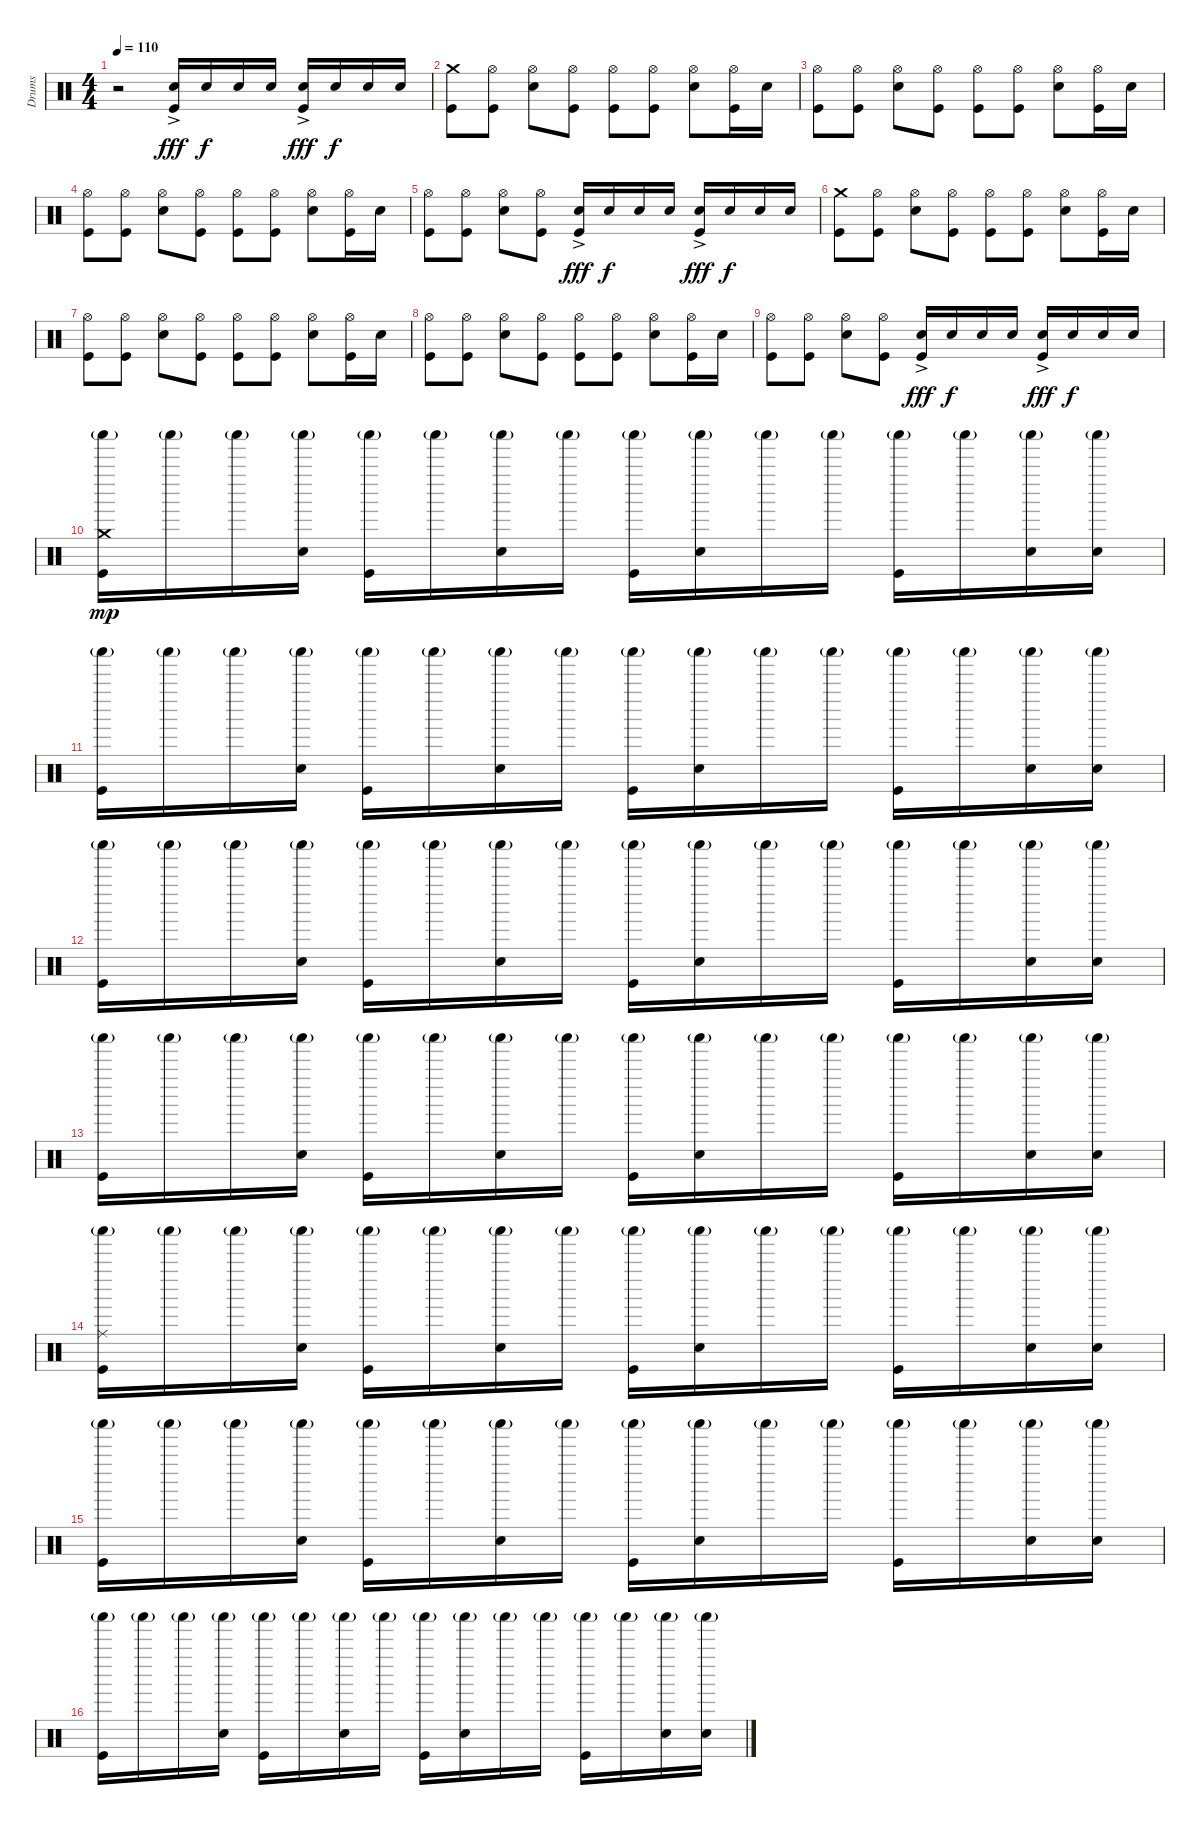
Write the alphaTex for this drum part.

\track ("Drums" "Drums") {instrument percussion}
\staff {score}
\articulation defaults
\ts (4 4)
\tempo 110
\clef neutral
\ks c
r.2{dy fff} ("Snare (hit) 2"{ac} "Kick (hit)").16 "Snare (hit) 2".16{dy f} "Snare (hit) 2".16 "Snare (hit) 2".16 ("Snare (hit) 2"{ac} "Kick (hit)").16{dy fff} "Snare (hit) 2".16{dy f} "Snare (hit) 2".16 "Snare (hit) 2".16 |
("Crash medium (hit)" "Kick (hit)").8 ("Hi-Hat (open)" "Kick (hit)").8 ("Hi-Hat (open)" "Snare (hit) 2").8 ("Hi-Hat (open)" "Kick (hit)").8 ("Hi-Hat (open)" "Kick (hit)").8 ("Hi-Hat (open)" "Kick (hit)").8 ("Hi-Hat (open)" "Snare (hit) 2").8 ("Hi-Hat (open)" "Kick (hit)").16 "Snare (hit) 2".16 |
("Hi-Hat (open)" "Kick (hit)").8 ("Hi-Hat (open)" "Kick (hit)").8 ("Hi-Hat (open)" "Snare (hit) 2").8 ("Hi-Hat (open)" "Kick (hit)").8 ("Hi-Hat (open)" "Kick (hit)").8 ("Hi-Hat (open)" "Kick (hit)").8 ("Hi-Hat (open)" "Snare (hit) 2").8 ("Hi-Hat (open)" "Kick (hit)").16 "Snare (hit) 2".16 |
("Hi-Hat (open)" "Kick (hit)").8 ("Hi-Hat (open)" "Kick (hit)").8 ("Hi-Hat (open)" "Snare (hit) 2").8 ("Hi-Hat (open)" "Kick (hit)").8 ("Hi-Hat (open)" "Kick (hit)").8 ("Hi-Hat (open)" "Kick (hit)").8 ("Hi-Hat (open)" "Snare (hit) 2").8 ("Hi-Hat (open)" "Kick (hit)").16 "Snare (hit) 2".16 |
("Hi-Hat (open)" "Kick (hit)").8 ("Hi-Hat (open)" "Kick (hit)").8 ("Hi-Hat (open)" "Snare (hit) 2").8 ("Hi-Hat (open)" "Kick (hit)").8 ("Snare (hit) 2"{ac} "Kick (hit)").16{dy fff} "Snare (hit) 2".16{dy f} "Snare (hit) 2".16 "Snare (hit) 2".16 ("Snare (hit) 2"{ac} "Kick (hit)").16{dy fff} "Snare (hit) 2".16{dy f} "Snare (hit) 2".16 "Snare (hit) 2".16 |
("Crash medium (hit)" "Kick (hit)").8 ("Hi-Hat (open)" "Kick (hit)").8 ("Hi-Hat (open)" "Snare (hit) 2").8 ("Hi-Hat (open)" "Kick (hit)").8 ("Hi-Hat (open)" "Kick (hit)").8 ("Hi-Hat (open)" "Kick (hit)").8 ("Hi-Hat (open)" "Snare (hit) 2").8 ("Hi-Hat (open)" "Kick (hit)").16 "Snare (hit) 2".16 |
("Hi-Hat (open)" "Kick (hit)").8 ("Hi-Hat (open)" "Kick (hit)").8 ("Hi-Hat (open)" "Snare (hit) 2").8 ("Hi-Hat (open)" "Kick (hit)").8 ("Hi-Hat (open)" "Kick (hit)").8 ("Hi-Hat (open)" "Kick (hit)").8 ("Hi-Hat (open)" "Snare (hit) 2").8 ("Hi-Hat (open)" "Kick (hit)").16 "Snare (hit) 2".16 |
("Hi-Hat (open)" "Kick (hit)").8 ("Hi-Hat (open)" "Kick (hit)").8 ("Hi-Hat (open)" "Snare (hit) 2").8 ("Hi-Hat (open)" "Kick (hit)").8 ("Hi-Hat (open)" "Kick (hit)").8 ("Hi-Hat (open)" "Kick (hit)").8 ("Hi-Hat (open)" "Snare (hit) 2").8 ("Hi-Hat (open)" "Kick (hit)").16 "Snare (hit) 2".16 |
("Hi-Hat (open)" "Kick (hit)").8 ("Hi-Hat (open)" "Kick (hit)").8 ("Hi-Hat (open)" "Snare (hit) 2").8 ("Hi-Hat (open)" "Kick (hit)").8 ("Snare (hit) 2"{ac} "Kick (hit)").16{dy fff} "Snare (hit) 2".16{dy f} "Snare (hit) 2".16 "Snare (hit) 2".16 ("Snare (hit) 2"{ac} "Kick (hit)").16{dy fff} "Snare (hit) 2".16{dy f} "Snare (hit) 2".16 "Snare (hit) 2".16 |
("Shaker (hit)"{g} "Crash medium (hit)" "Kick (hit)").16{dy mp} "Shaker (hit)"{g}.16 "Shaker (hit)"{g}.16 ("Shaker (hit)"{g} "Snare (hit) 2").16 ("Shaker (hit)"{g} "Kick (hit)").16 "Shaker (hit)"{g}.16 ("Shaker (hit)"{g} "Snare (hit) 2").16 "Shaker (hit)"{g}.16 ("Shaker (hit)"{g} "Kick (hit)").16 ("Shaker (hit)"{g} "Snare (hit) 2").16 "Shaker (hit)"{g}.16 "Shaker (hit)"{g}.16 ("Shaker (hit)"{g} "Kick (hit)").16 "Shaker (hit)"{g}.16 ("Shaker (hit)"{g} "Snare (hit) 2").16 ("Shaker (hit)"{g} "Snare (hit) 2").16 |
("Shaker (hit)"{g} "Kick (hit)").16 "Shaker (hit)"{g}.16 "Shaker (hit)"{g}.16 ("Shaker (hit)"{g} "Snare (hit) 2").16 ("Shaker (hit)"{g} "Kick (hit)").16 "Shaker (hit)"{g}.16 ("Shaker (hit)"{g} "Snare (hit) 2").16 "Shaker (hit)"{g}.16 ("Shaker (hit)"{g} "Kick (hit)").16 ("Shaker (hit)"{g} "Snare (hit) 2").16 "Shaker (hit)"{g}.16 "Shaker (hit)"{g}.16 ("Shaker (hit)"{g} "Kick (hit)").16 "Shaker (hit)"{g}.16 ("Shaker (hit)"{g} "Snare (hit) 2").16 ("Shaker (hit)"{g} "Snare (hit) 2").16 |
("Shaker (hit)"{g} "Kick (hit)").16 "Shaker (hit)"{g}.16 "Shaker (hit)"{g}.16 ("Shaker (hit)"{g} "Snare (hit) 2").16 ("Shaker (hit)"{g} "Kick (hit)").16 "Shaker (hit)"{g}.16 ("Shaker (hit)"{g} "Snare (hit) 2").16 "Shaker (hit)"{g}.16 ("Shaker (hit)"{g} "Kick (hit)").16 ("Shaker (hit)"{g} "Snare (hit) 2").16 "Shaker (hit)"{g}.16 "Shaker (hit)"{g}.16 ("Shaker (hit)"{g} "Kick (hit)").16 "Shaker (hit)"{g}.16 ("Shaker (hit)"{g} "Snare (hit) 2").16 ("Shaker (hit)"{g} "Snare (hit) 2").16 |
("Shaker (hit)"{g} "Kick (hit)").16 "Shaker (hit)"{g}.16 "Shaker (hit)"{g}.16 ("Shaker (hit)"{g} "Snare (hit) 2").16 ("Shaker (hit)"{g} "Kick (hit)").16 "Shaker (hit)"{g}.16 ("Shaker (hit)"{g} "Snare (hit) 2").16 "Shaker (hit)"{g}.16 ("Shaker (hit)"{g} "Kick (hit)").16 ("Shaker (hit)"{g} "Snare (hit) 2").16 "Shaker (hit)"{g}.16 "Shaker (hit)"{g}.16 ("Shaker (hit)"{g} "Kick (hit)").16 "Shaker (hit)"{g}.16 ("Shaker (hit)"{g} "Snare (hit) 2").16 ("Shaker (hit)"{g} "Snare (hit) 2").16 |
("Shaker (hit)"{g} "Ride (middle)" "Kick (hit)").16 "Shaker (hit)"{g}.16 "Shaker (hit)"{g}.16 ("Shaker (hit)"{g} "Snare (hit) 2").16 ("Shaker (hit)"{g} "Kick (hit)").16 "Shaker (hit)"{g}.16 ("Shaker (hit)"{g} "Snare (hit) 2").16 "Shaker (hit)"{g}.16 ("Shaker (hit)"{g} "Kick (hit)").16 ("Shaker (hit)"{g} "Snare (hit) 2").16 "Shaker (hit)"{g}.16 "Shaker (hit)"{g}.16 ("Shaker (hit)"{g} "Kick (hit)").16 "Shaker (hit)"{g}.16 ("Shaker (hit)"{g} "Snare (hit) 2").16 ("Shaker (hit)"{g} "Snare (hit) 2").16 |
("Shaker (hit)"{g} "Kick (hit)").16 "Shaker (hit)"{g}.16 "Shaker (hit)"{g}.16 ("Shaker (hit)"{g} "Snare (hit) 2").16 ("Shaker (hit)"{g} "Kick (hit)").16 "Shaker (hit)"{g}.16 ("Shaker (hit)"{g} "Snare (hit) 2").16 "Shaker (hit)"{g}.16 ("Shaker (hit)"{g} "Kick (hit)").16 ("Shaker (hit)"{g} "Snare (hit) 2").16 "Shaker (hit)"{g}.16 "Shaker (hit)"{g}.16 ("Shaker (hit)"{g} "Kick (hit)").16 "Shaker (hit)"{g}.16 ("Shaker (hit)"{g} "Snare (hit) 2").16 ("Shaker (hit)"{g} "Snare (hit) 2").16 |
("Shaker (hit)"{g} "Kick (hit)").16 "Shaker (hit)"{g}.16 "Shaker (hit)"{g}.16 ("Shaker (hit)"{g} "Snare (hit) 2").16 ("Shaker (hit)"{g} "Kick (hit)").16 "Shaker (hit)"{g}.16 ("Shaker (hit)"{g} "Snare (hit) 2").16 "Shaker (hit)"{g}.16 ("Shaker (hit)"{g} "Kick (hit)").16 ("Shaker (hit)"{g} "Snare (hit) 2").16 "Shaker (hit)"{g}.16 "Shaker (hit)"{g}.16 ("Shaker (hit)"{g} "Kick (hit)").16 "Shaker (hit)"{g}.16 ("Shaker (hit)"{g} "Snare (hit) 2").16 ("Shaker (hit)"{g} "Snare (hit) 2").16
